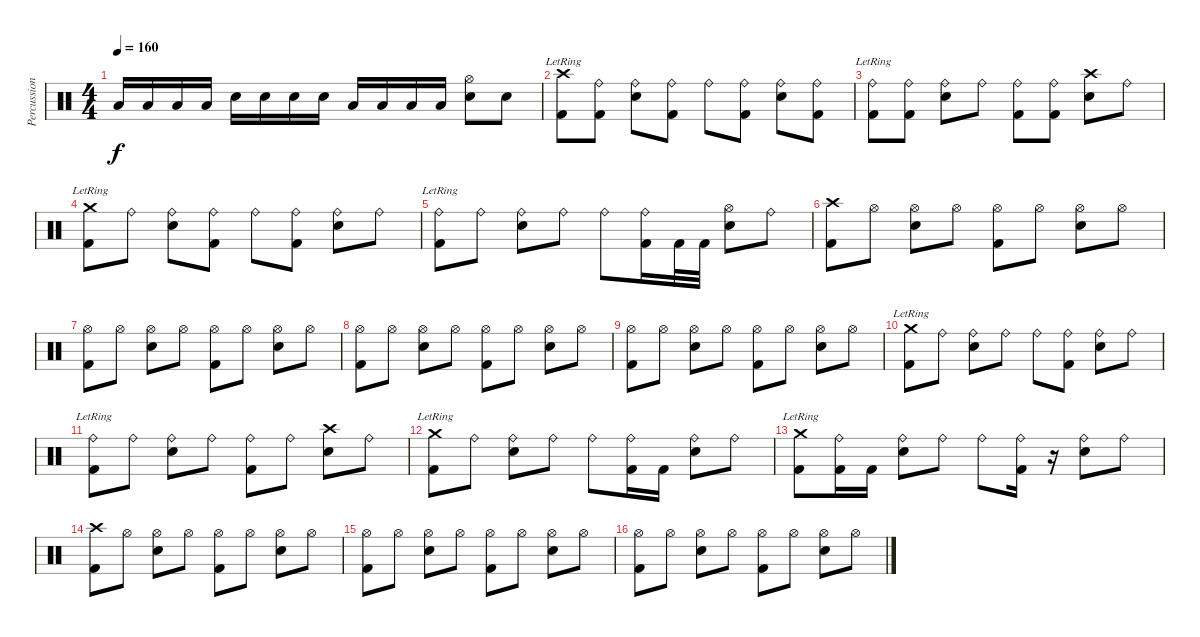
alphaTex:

\track ("Percussioni" "Percussion") {instrument percussion}
\staff {score}
\articulation defaults
\ts (4 4)
\tempo 160
\clef neutral
\ks c "Low Tom (hit)".16{dy f} "Low Tom (hit)".16 "Low Tom (hit)".16 "Low Tom (hit)".16 "Electric Snare (hit)".16 "Electric Snare (hit)".16 "Electric Snare (hit)".16 "Electric Snare (hit)".16 "Low Tom (hit)".16 "Low Tom (hit)".16 "Low Tom (hit)".16 "Low Tom (hit)".16
("Hi-Hat (open)" "Electric Snare (hit)").8 "Electric Snare (hit)".8 |
("Crash high (hit)"{lr} "Kick (hit) 2").8 ("Ride (bell)" "Kick (hit) 2").8 ("Ride (bell)" "Electric Snare (hit)").8 ("Ride (bell)" "Kick (hit) 2").8 "Ride (bell)".8 ("Ride (bell)" "Kick (hit) 2").8 ("Ride (bell)" "Electric Snare (hit)").8 ("Ride (bell)" "Kick (hit) 2").8 |
("Ride (bell)"{lr} "Kick (hit) 2").8 ("Ride (bell)" "Kick (hit) 2").8 ("Ride (bell)" "Electric Snare (hit)").8 "Ride (bell)".8 ("Ride (bell)" "Kick (hit) 2").8 ("Ride (bell)" "Kick (hit) 2").8 ("Crash high (hit)" "Electric Snare (hit)").8 "Ride (bell)".8 |
("Crash medium (hit)"{lr} "Kick (hit) 2").8 "Ride (bell)".8 ("Ride (bell)" "Electric Snare (hit)").8 ("Ride (bell)" "Kick (hit) 2").8 "Ride (bell)".8 ("Ride (bell)" "Kick (hit) 2").8 ("Ride (bell)" "Electric Snare (hit)").8 "Ride (bell)".8 |
("Ride (bell)"{lr} "Kick (hit) 2").8 "Ride (bell)".8 ("Ride (bell)" "Electric Snare (hit)").8 "Ride (bell)".8 "Ride (bell)".8 ("Ride (bell)" "Kick (hit) 2").16 "Kick (hit) 2".32 "Kick (hit) 2".32 ("Hi-Hat (open)" "Electric Snare (hit)").8 "Ride (bell)".8 |
("Crash high (hit)" "Kick (hit) 2").8 "Hi-Hat (open)".8 ("Hi-Hat (open)" "Electric Snare (hit)").8 "Hi-Hat (open)".8 ("Hi-Hat (open)" "Kick (hit) 2").8 "Hi-Hat (open)".8 ("Hi-Hat (open)" "Electric Snare (hit)").8 "Hi-Hat (open)".8 |
("Hi-Hat (open)" "Kick (hit) 2").8 "Hi-Hat (open)".8 ("Hi-Hat (open)" "Electric Snare (hit)").8 "Hi-Hat (open)".8 ("Hi-Hat (open)" "Kick (hit) 2").8 "Hi-Hat (open)".8 ("Hi-Hat (open)" "Electric Snare (hit)").8 "Hi-Hat (open)".8 |
("Hi-Hat (open)" "Kick (hit) 2").8 "Hi-Hat (open)".8 ("Hi-Hat (open)" "Electric Snare (hit)").8 "Hi-Hat (open)".8 ("Hi-Hat (open)" "Kick (hit) 2").8 "Hi-Hat (open)".8 ("Hi-Hat (open)" "Electric Snare (hit)").8 "Hi-Hat (open)".8 |
("Hi-Hat (open)" "Kick (hit) 2").8 "Hi-Hat (open)".8 ("Hi-Hat (open)" "Electric Snare (hit)").8 "Hi-Hat (open)".8 ("Hi-Hat (open)" "Kick (hit) 2").8 "Hi-Hat (open)".8 ("Hi-Hat (open)" "Electric Snare (hit)").8 "Hi-Hat (open)".8 |
("Crash medium (hit)"{lr} "Kick (hit) 2").8 "Ride (bell)".8 ("Ride (bell)" "Electric Snare (hit)").8 "Ride (bell)".8 "Ride (bell)".8 ("Ride (bell)" "Kick (hit) 2").8 ("Ride (bell)" "Electric Snare (hit)").8 "Ride (bell)".8 |
("Ride (bell)"{lr} "Kick (hit) 2").8 "Ride (bell)".8 ("Ride (bell)" "Electric Snare (hit)").8 "Ride (bell)".8 ("Ride (bell)" "Kick (hit) 2").8 "Ride (bell)".8 ("Crash high (hit)" "Electric Snare (hit)").8 "Ride (bell)".8 |
("Crash medium (hit)"{lr} "Kick (hit) 2").8 "Ride (bell)".8 ("Ride (bell)" "Electric Snare (hit)").8 "Ride (bell)".8 "Ride (bell)".8 ("Ride (bell)" "Kick (hit) 2").16 "Kick (hit) 2".16 ("Ride (bell)" "Electric Snare (hit)").8 "Ride (bell)".8 |
("Crash medium (hit)"{lr} "Kick (hit) 2").8 ("Ride (bell)" "Kick (hit) 2").16 "Kick (hit) 2".16 ("Ride (bell)" "Electric Snare (hit)").8 "Ride (bell)".8 "Ride (bell)".8 ("Ride (bell)" "Kick (hit) 2").16 r.16 ("Ride (bell)" "Electric Snare (hit)").8 "Ride (bell)".8 |
("Crash high (hit)" "Kick (hit) 2").8 "Hi-Hat (open)".8 ("Hi-Hat (open)" "Electric Snare (hit)").8 "Hi-Hat (open)".8 ("Hi-Hat (open)" "Kick (hit) 2").8 "Hi-Hat (open)".8 ("Hi-Hat (open)" "Electric Snare (hit)").8 "Hi-Hat (open)".8 |
("Hi-Hat (open)" "Kick (hit) 2").8 "Hi-Hat (open)".8 ("Hi-Hat (open)" "Electric Snare (hit)").8 "Hi-Hat (open)".8 ("Hi-Hat (open)" "Kick (hit) 2").8 "Hi-Hat (open)".8 ("Hi-Hat (open)" "Electric Snare (hit)").8 "Hi-Hat (open)".8 |
("Hi-Hat (open)" "Kick (hit) 2").8 "Hi-Hat (open)".8 ("Hi-Hat (open)" "Electric Snare (hit)").8 "Hi-Hat (open)".8 ("Hi-Hat (open)" "Kick (hit) 2").8 "Hi-Hat (open)".8 ("Hi-Hat (open)" "Electric Snare (hit)").8 "Hi-Hat (open)".8
